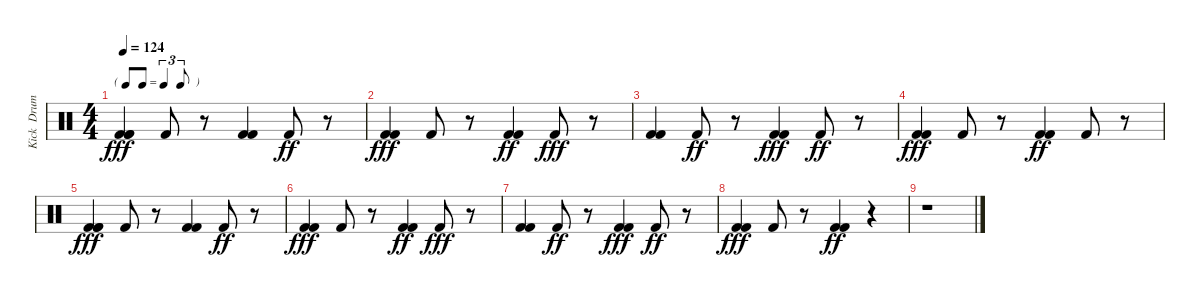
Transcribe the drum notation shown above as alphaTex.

\track ("Kick  Drum" "Kick  Drum") {instrument percussion}
\staff {score}
\articulation defaults
\ts (4 4)
\tf triplet8th
\tempo 124
\clef neutral
\ks c
("Kick (hit) 2" "Kick (hit) 2" "Kick (hit) 2").4{dy fff} "Kick (hit) 2".8 r.8 ("Kick (hit) 2" "Kick (hit) 2").4 "Kick (hit) 2".8{dy ff} r.8 |
("Kick (hit) 2" "Kick (hit) 2").4{dy fff} "Kick (hit) 2".8 r.8 ("Kick (hit) 2" "Kick (hit) 2").4{dy ff} "Kick (hit) 2".8{dy fff} r.8 |
("Kick (hit) 2" "Kick (hit) 2").4 "Kick (hit) 2".8{dy ff} r.8 ("Kick (hit) 2" "Kick (hit) 2").4{dy fff} "Kick (hit) 2".8{dy ff} r.8 |
("Kick (hit) 2" "Kick (hit) 2").4{dy fff} "Kick (hit) 2".8 r.8 ("Kick (hit) 2" "Kick (hit) 2").4{dy ff} "Kick (hit) 2".8 r.8 |
("Kick (hit) 2" "Kick (hit) 2" "Kick (hit) 2").4{dy fff} "Kick (hit) 2".8 r.8 ("Kick (hit) 2" "Kick (hit) 2").4 "Kick (hit) 2".8{dy ff} r.8 |
("Kick (hit) 2" "Kick (hit) 2").4{dy fff} "Kick (hit) 2".8 r.8 ("Kick (hit) 2" "Kick (hit) 2").4{dy ff} "Kick (hit) 2".8{dy fff} r.8 |
("Kick (hit) 2" "Kick (hit) 2").4 "Kick (hit) 2".8{dy ff} r.8 ("Kick (hit) 2" "Kick (hit) 2").4{dy fff} "Kick (hit) 2".8{dy ff} r.8 |
("Kick (hit) 2" "Kick (hit) 2").4{dy fff} "Kick (hit) 2".8 r.8 ("Kick (hit) 2" "Kick (hit) 2").4{dy ff} r.4 |
r.1
